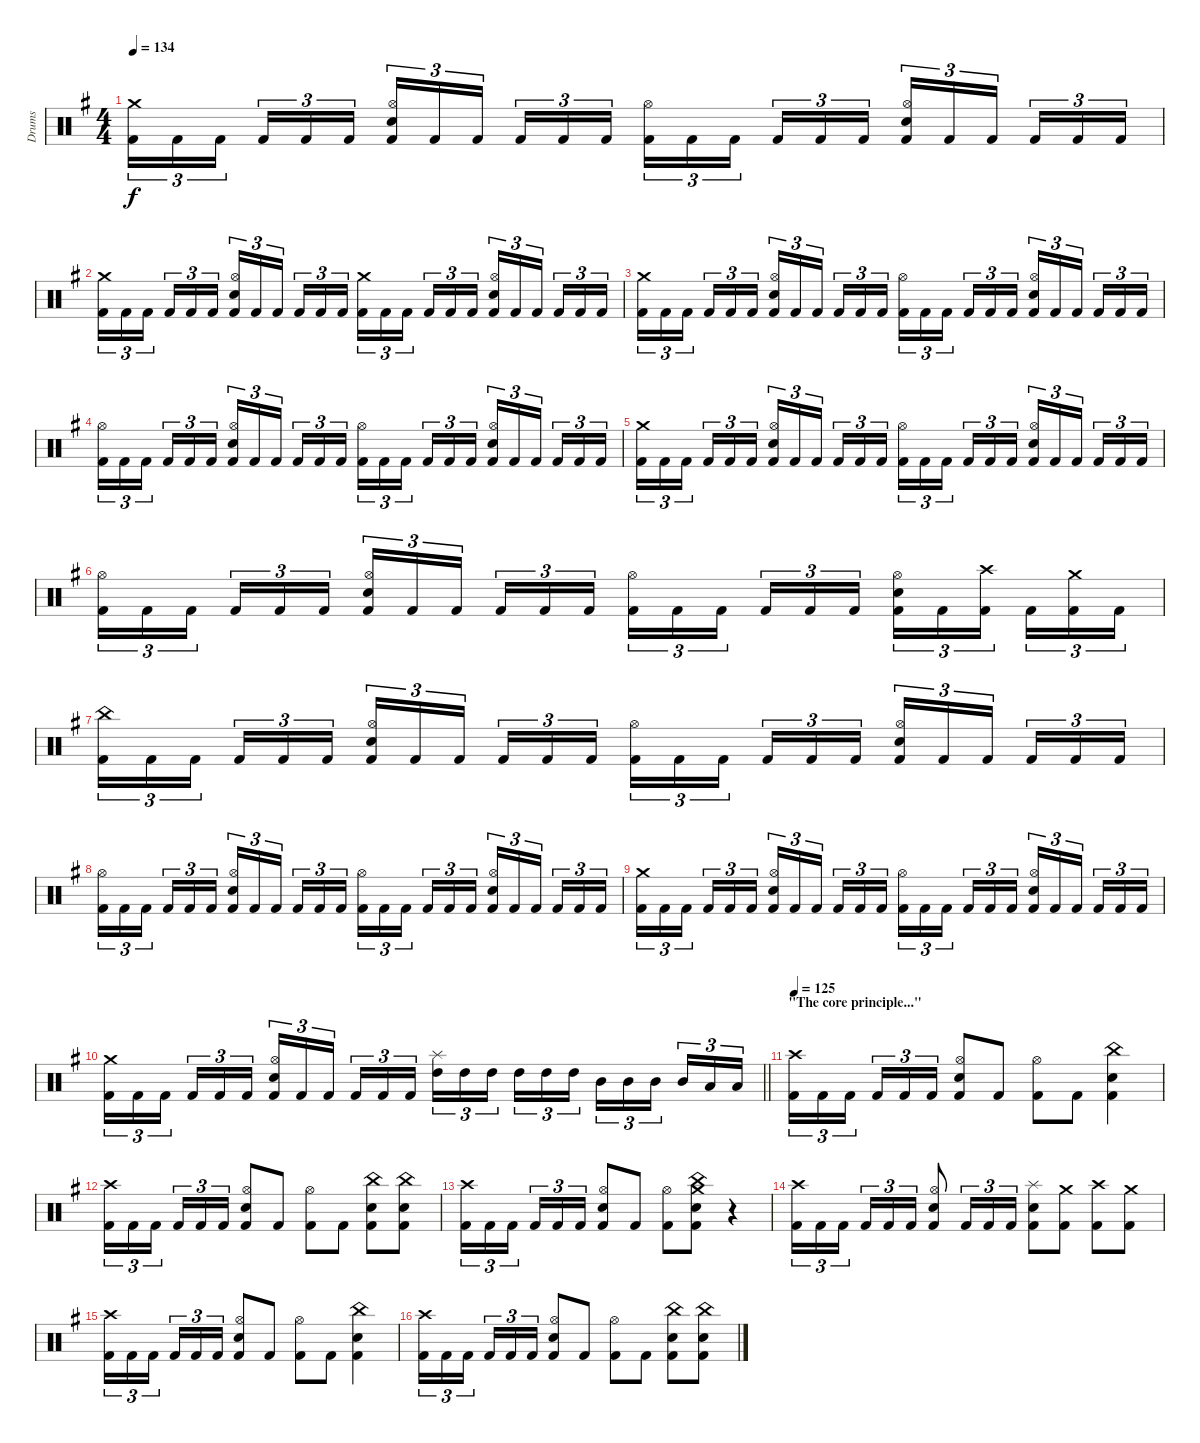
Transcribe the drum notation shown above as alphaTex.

\track ("Drums" "Drums") {instrument percussion}
\staff {score}
\articulation defaults
\ts (4 4)
\tempo 134
\clef neutral
\ks g
("Crash medium (hit)" "Kick (hit) 2").16{tu (3 2) dy f} "Kick (hit) 2".16{tu (3 2)} "Kick (hit) 2".16{tu (3 2) beam splitsecondary} "Kick (hit) 2".16{tu (3 2)} "Kick (hit) 2".16{tu (3 2)} "Kick (hit) 2".16{tu (3 2)} ("Hi-Hat (open)" "Electric Snare (hit)" "Kick (hit) 2").16{tu (3 2)} "Kick (hit) 2".16{tu (3 2)} "Kick (hit) 2".16{tu (3 2) beam splitsecondary} "Kick (hit) 2".16{tu (3 2)} "Kick (hit) 2".16{tu (3 2)} "Kick (hit) 2".16{tu (3 2)} ("Hi-Hat (open)" "Kick (hit) 2").16{tu (3 2)} "Kick (hit) 2".16{tu (3 2)} "Kick (hit) 2".16{tu (3 2) beam splitsecondary} "Kick (hit) 2".16{tu (3 2)} "Kick (hit) 2".16{tu (3 2)} "Kick (hit) 2".16{tu (3 2)} ("Hi-Hat (open)" "Electric Snare (hit)" "Kick (hit) 2").16{tu (3 2)} "Kick (hit) 2".16{tu (3 2)} "Kick (hit) 2".16{tu (3 2) beam splitsecondary} "Kick (hit) 2".16{tu (3 2)} "Kick (hit) 2".16{tu (3 2)} "Kick (hit) 2".16{tu (3 2)} |
("Crash medium (hit)" "Kick (hit) 2").16{tu (3 2)} "Kick (hit) 2".16{tu (3 2)} "Kick (hit) 2".16{tu (3 2) beam splitsecondary} "Kick (hit) 2".16{tu (3 2)} "Kick (hit) 2".16{tu (3 2)} "Kick (hit) 2".16{tu (3 2)} ("Hi-Hat (open)" "Electric Snare (hit)" "Kick (hit) 2").16{tu (3 2)} "Kick (hit) 2".16{tu (3 2)} "Kick (hit) 2".16{tu (3 2) beam splitsecondary} "Kick (hit) 2".16{tu (3 2)} "Kick (hit) 2".16{tu (3 2)} "Kick (hit) 2".16{tu (3 2)} ("Crash medium (hit)" "Kick (hit) 2").16{tu (3 2)} "Kick (hit) 2".16{tu (3 2)} "Kick (hit) 2".16{tu (3 2) beam splitsecondary} "Kick (hit) 2".16{tu (3 2)} "Kick (hit) 2".16{tu (3 2)} "Kick (hit) 2".16{tu (3 2)} ("Hi-Hat (open)" "Electric Snare (hit)" "Kick (hit) 2").16{tu (3 2)} "Kick (hit) 2".16{tu (3 2)} "Kick (hit) 2".16{tu (3 2) beam splitsecondary} "Kick (hit) 2".16{tu (3 2)} "Kick (hit) 2".16{tu (3 2)} "Kick (hit) 2".16{tu (3 2)} |
("Crash medium (hit)" "Kick (hit) 2").16{tu (3 2)} "Kick (hit) 2".16{tu (3 2)} "Kick (hit) 2".16{tu (3 2) beam splitsecondary} "Kick (hit) 2".16{tu (3 2)} "Kick (hit) 2".16{tu (3 2)} "Kick (hit) 2".16{tu (3 2)} ("Hi-Hat (open)" "Electric Snare (hit)" "Kick (hit) 2").16{tu (3 2)} "Kick (hit) 2".16{tu (3 2)} "Kick (hit) 2".16{tu (3 2) beam splitsecondary} "Kick (hit) 2".16{tu (3 2)} "Kick (hit) 2".16{tu (3 2)} "Kick (hit) 2".16{tu (3 2)} ("Hi-Hat (open)" "Kick (hit) 2").16{tu (3 2)} "Kick (hit) 2".16{tu (3 2)} "Kick (hit) 2".16{tu (3 2) beam splitsecondary} "Kick (hit) 2".16{tu (3 2)} "Kick (hit) 2".16{tu (3 2)} "Kick (hit) 2".16{tu (3 2)} ("Hi-Hat (open)" "Electric Snare (hit)" "Kick (hit) 2").16{tu (3 2)} "Kick (hit) 2".16{tu (3 2)} "Kick (hit) 2".16{tu (3 2) beam splitsecondary} "Kick (hit) 2".16{tu (3 2)} "Kick (hit) 2".16{tu (3 2)} "Kick (hit) 2".16{tu (3 2)} |
("Hi-Hat (open)" "Kick (hit) 2").16{tu (3 2)} "Kick (hit) 2".16{tu (3 2)} "Kick (hit) 2".16{tu (3 2) beam splitsecondary} "Kick (hit) 2".16{tu (3 2)} "Kick (hit) 2".16{tu (3 2)} "Kick (hit) 2".16{tu (3 2)} ("Hi-Hat (open)" "Electric Snare (hit)" "Kick (hit) 2").16{tu (3 2)} "Kick (hit) 2".16{tu (3 2)} "Kick (hit) 2".16{tu (3 2) beam splitsecondary} "Kick (hit) 2".16{tu (3 2)} "Kick (hit) 2".16{tu (3 2)} "Kick (hit) 2".16{tu (3 2)} ("Hi-Hat (open)" "Kick (hit) 2").16{tu (3 2)} "Kick (hit) 2".16{tu (3 2)} "Kick (hit) 2".16{tu (3 2) beam splitsecondary} "Kick (hit) 2".16{tu (3 2)} "Kick (hit) 2".16{tu (3 2)} "Kick (hit) 2".16{tu (3 2)} ("Hi-Hat (open)" "Electric Snare (hit)" "Kick (hit) 2").16{tu (3 2)} "Kick (hit) 2".16{tu (3 2)} "Kick (hit) 2".16{tu (3 2) beam splitsecondary} "Kick (hit) 2".16{tu (3 2)} "Kick (hit) 2".16{tu (3 2)} "Kick (hit) 2".16{tu (3 2)} |
("Crash medium (hit)" "Kick (hit) 2").16{tu (3 2)} "Kick (hit) 2".16{tu (3 2)} "Kick (hit) 2".16{tu (3 2) beam splitsecondary} "Kick (hit) 2".16{tu (3 2)} "Kick (hit) 2".16{tu (3 2)} "Kick (hit) 2".16{tu (3 2)} ("Hi-Hat (open)" "Electric Snare (hit)" "Kick (hit) 2").16{tu (3 2)} "Kick (hit) 2".16{tu (3 2)} "Kick (hit) 2".16{tu (3 2) beam splitsecondary} "Kick (hit) 2".16{tu (3 2)} "Kick (hit) 2".16{tu (3 2)} "Kick (hit) 2".16{tu (3 2)} ("Hi-Hat (open)" "Kick (hit) 2").16{tu (3 2)} "Kick (hit) 2".16{tu (3 2)} "Kick (hit) 2".16{tu (3 2) beam splitsecondary} "Kick (hit) 2".16{tu (3 2)} "Kick (hit) 2".16{tu (3 2)} "Kick (hit) 2".16{tu (3 2)} ("Hi-Hat (open)" "Electric Snare (hit)" "Kick (hit) 2").16{tu (3 2)} "Kick (hit) 2".16{tu (3 2)} "Kick (hit) 2".16{tu (3 2) beam splitsecondary} "Kick (hit) 2".16{tu (3 2)} "Kick (hit) 2".16{tu (3 2)} "Kick (hit) 2".16{tu (3 2)} |
("Hi-Hat (open)" "Kick (hit) 2").16{tu (3 2)} "Kick (hit) 2".16{tu (3 2)} "Kick (hit) 2".16{tu (3 2) beam splitsecondary} "Kick (hit) 2".16{tu (3 2)} "Kick (hit) 2".16{tu (3 2)} "Kick (hit) 2".16{tu (3 2)} ("Hi-Hat (open)" "Electric Snare (hit)" "Kick (hit) 2").16{tu (3 2)} "Kick (hit) 2".16{tu (3 2)} "Kick (hit) 2".16{tu (3 2) beam splitsecondary} "Kick (hit) 2".16{tu (3 2)} "Kick (hit) 2".16{tu (3 2)} "Kick (hit) 2".16{tu (3 2)} ("Hi-Hat (open)" "Kick (hit) 2").16{tu (3 2)} "Kick (hit) 2".16{tu (3 2)} "Kick (hit) 2".16{tu (3 2) beam splitsecondary} "Kick (hit) 2".16{tu (3 2)} "Kick (hit) 2".16{tu (3 2)} "Kick (hit) 2".16{tu (3 2)} ("Hi-Hat (open)" "Electric Snare (hit)" "Kick (hit) 2").16{tu (3 2)} "Kick (hit) 2".16{tu (3 2)} ("Crash high (hit)" "Kick (hit) 2").16{tu (3 2) beam splitsecondary} "Kick (hit) 2".16{tu (3 2)} ("Crash medium (hit)" "Kick (hit) 2").16{tu (3 2)} "Kick (hit) 2".16{tu (3 2)} |
("China (hit)" "Kick (hit) 2").16{tu (3 2)} "Kick (hit) 2".16{tu (3 2)} "Kick (hit) 2".16{tu (3 2) beam splitsecondary} "Kick (hit) 2".16{tu (3 2)} "Kick (hit) 2".16{tu (3 2)} "Kick (hit) 2".16{tu (3 2)} ("Hi-Hat (open)" "Electric Snare (hit)" "Kick (hit) 2").16{tu (3 2)} "Kick (hit) 2".16{tu (3 2)} "Kick (hit) 2".16{tu (3 2) beam splitsecondary} "Kick (hit) 2".16{tu (3 2)} "Kick (hit) 2".16{tu (3 2)} "Kick (hit) 2".16{tu (3 2)} ("Hi-Hat (open)" "Kick (hit) 2").16{tu (3 2)} "Kick (hit) 2".16{tu (3 2)} "Kick (hit) 2".16{tu (3 2) beam splitsecondary} "Kick (hit) 2".16{tu (3 2)} "Kick (hit) 2".16{tu (3 2)} "Kick (hit) 2".16{tu (3 2)} ("Hi-Hat (open)" "Electric Snare (hit)" "Kick (hit) 2").16{tu (3 2)} "Kick (hit) 2".16{tu (3 2)} "Kick (hit) 2".16{tu (3 2) beam splitsecondary} "Kick (hit) 2".16{tu (3 2)} "Kick (hit) 2".16{tu (3 2)} "Kick (hit) 2".16{tu (3 2)} |
("Hi-Hat (open)" "Kick (hit) 2").16{tu (3 2)} "Kick (hit) 2".16{tu (3 2)} "Kick (hit) 2".16{tu (3 2) beam splitsecondary} "Kick (hit) 2".16{tu (3 2)} "Kick (hit) 2".16{tu (3 2)} "Kick (hit) 2".16{tu (3 2)} ("Hi-Hat (open)" "Electric Snare (hit)" "Kick (hit) 2").16{tu (3 2)} "Kick (hit) 2".16{tu (3 2)} "Kick (hit) 2".16{tu (3 2) beam splitsecondary} "Kick (hit) 2".16{tu (3 2)} "Kick (hit) 2".16{tu (3 2)} "Kick (hit) 2".16{tu (3 2)} ("Hi-Hat (open)" "Kick (hit) 2").16{tu (3 2)} "Kick (hit) 2".16{tu (3 2)} "Kick (hit) 2".16{tu (3 2) beam splitsecondary} "Kick (hit) 2".16{tu (3 2)} "Kick (hit) 2".16{tu (3 2)} "Kick (hit) 2".16{tu (3 2)} ("Hi-Hat (open)" "Electric Snare (hit)" "Kick (hit) 2").16{tu (3 2)} "Kick (hit) 2".16{tu (3 2)} "Kick (hit) 2".16{tu (3 2) beam splitsecondary} "Kick (hit) 2".16{tu (3 2)} "Kick (hit) 2".16{tu (3 2)} "Kick (hit) 2".16{tu (3 2)} |
("Crash medium (hit)" "Kick (hit) 2").16{tu (3 2)} "Kick (hit) 2".16{tu (3 2)} "Kick (hit) 2".16{tu (3 2) beam splitsecondary} "Kick (hit) 2".16{tu (3 2)} "Kick (hit) 2".16{tu (3 2)} "Kick (hit) 2".16{tu (3 2)} ("Hi-Hat (open)" "Electric Snare (hit)" "Kick (hit) 2").16{tu (3 2)} "Kick (hit) 2".16{tu (3 2)} "Kick (hit) 2".16{tu (3 2) beam splitsecondary} "Kick (hit) 2".16{tu (3 2)} "Kick (hit) 2".16{tu (3 2)} "Kick (hit) 2".16{tu (3 2)} ("Hi-Hat (open)" "Kick (hit) 2").16{tu (3 2)} "Kick (hit) 2".16{tu (3 2)} "Kick (hit) 2".16{tu (3 2) beam splitsecondary} "Kick (hit) 2".16{tu (3 2)} "Kick (hit) 2".16{tu (3 2)} "Kick (hit) 2".16{tu (3 2)} ("Hi-Hat (open)" "Electric Snare (hit)" "Kick (hit) 2").16{tu (3 2)} "Kick (hit) 2".16{tu (3 2)} "Kick (hit) 2".16{tu (3 2) beam splitsecondary} "Kick (hit) 2".16{tu (3 2)} "Kick (hit) 2".16{tu (3 2)} "Kick (hit) 2".16{tu (3 2)} |
\barLineRight lightlight
("Crash medium (hit)" "Kick (hit) 2").16{tu (3 2)} "Kick (hit) 2".16{tu (3 2)} "Kick (hit) 2".16{tu (3 2) beam splitsecondary} "Kick (hit) 2".16{tu (3 2)} "Kick (hit) 2".16{tu (3 2)} "Kick (hit) 2".16{tu (3 2)} ("Hi-Hat (open)" "Electric Snare (hit)" "Kick (hit) 2").16{tu (3 2)} "Kick (hit) 2".16{tu (3 2)} "Kick (hit) 2".16{tu (3 2) beam splitsecondary} "Kick (hit) 2".16{tu (3 2)} "Kick (hit) 2".16{tu (3 2)} "Kick (hit) 2".16{tu (3 2)} ("Splash (hit)" "High Tom (hit)").16{tu (3 2)} "High Tom (hit)".16{tu (3 2)} "High Tom (hit)".16{tu (3 2) beam splitsecondary} "High Tom (hit)".16{tu (3 2)} "High Tom (hit)".16{tu (3 2)} "High Tom (hit)".16{tu (3 2)} "Mid Tom (hit)".16{tu (3 2)} "Mid Tom (hit)".16{tu (3 2)} "Mid Tom (hit)".16{tu (3 2) beam splitsecondary} "Mid Tom (hit)".16{tu (3 2)} "Low Tom (hit)".16{tu (3 2)} "Low Tom (hit)".16{tu (3 2)} |
\section ("" "\"The core principle...\"")
\tempo 125
("Crash high (hit)" "Kick (hit) 2").16{tu (3 2)} "Kick (hit) 2".16{tu (3 2)} "Kick (hit) 2".16{tu (3 2) beam splitsecondary} "Kick (hit) 2".16{tu (3 2)} "Kick (hit) 2".16{tu (3 2)} "Kick (hit) 2".16{tu (3 2)} ("Hi-Hat (open)" "Electric Snare (hit)" "Kick (hit) 2").8 "Kick (hit) 2".8 ("Hi-Hat (open)" "Kick (hit) 2").8 "Kick (hit) 2".8 ("China (hit)" "Electric Snare (hit)" "Kick (hit) 2").4 |
("Crash high (hit)" "Kick (hit) 2").16{tu (3 2)} "Kick (hit) 2".16{tu (3 2)} "Kick (hit) 2".16{tu (3 2) beam splitsecondary} "Kick (hit) 2".16{tu (3 2)} "Kick (hit) 2".16{tu (3 2)} "Kick (hit) 2".16{tu (3 2)} ("Hi-Hat (open)" "Electric Snare (hit)" "Kick (hit) 2").8 "Kick (hit) 2".8 ("Hi-Hat (open)" "Kick (hit) 2").8 "Kick (hit) 2".8 ("China (hit)" "Electric Snare (hit)" "Kick (hit) 2").8 ("China (hit)" "Electric Snare (hit)" "Kick (hit) 2").8 |
("Crash high (hit)" "Kick (hit) 2").16{tu (3 2)} "Kick (hit) 2".16{tu (3 2)} "Kick (hit) 2".16{tu (3 2) beam splitsecondary} "Kick (hit) 2".16{tu (3 2)} "Kick (hit) 2".16{tu (3 2)} "Kick (hit) 2".16{tu (3 2)} ("Hi-Hat (open)" "Electric Snare (hit)" "Kick (hit) 2").8 "Kick (hit) 2".8 ("Hi-Hat (open)" "Kick (hit) 2").8 ("China (hit)" "Crash medium (hit)" "Electric Snare (hit)" "Kick (hit) 2").8 r.4 |
("Crash high (hit)" "Kick (hit) 2").16{tu (3 2)} "Kick (hit) 2".16{tu (3 2)} "Kick (hit) 2".16{tu (3 2) beam splitsecondary} "Kick (hit) 2".16{tu (3 2)} "Kick (hit) 2".16{tu (3 2)} "Kick (hit) 2".16{tu (3 2)} ("Hi-Hat (open)" "Electric Snare (hit)" "Kick (hit) 2").8 "Kick (hit) 2".16{tu (3 2)} "Kick (hit) 2".16{tu (3 2)} "Kick (hit) 2".16{tu (3 2)} ("Splash (hit)" "Electric Snare (hit)" "Kick (hit) 2").8 ("Crash medium (hit)" "Kick (hit) 2").8 ("Crash high (hit)" "Kick (hit) 2").8 ("Crash medium (hit)" "Kick (hit) 2").8 |
("Crash high (hit)" "Kick (hit) 2").16{tu (3 2)} "Kick (hit) 2".16{tu (3 2)} "Kick (hit) 2".16{tu (3 2) beam splitsecondary} "Kick (hit) 2".16{tu (3 2)} "Kick (hit) 2".16{tu (3 2)} "Kick (hit) 2".16{tu (3 2)} ("Hi-Hat (open)" "Electric Snare (hit)" "Kick (hit) 2").8 "Kick (hit) 2".8 ("Hi-Hat (open)" "Kick (hit) 2").8 "Kick (hit) 2".8 ("China (hit)" "Electric Snare (hit)" "Kick (hit) 2").4 |
("Crash high (hit)" "Kick (hit) 2").16{tu (3 2)} "Kick (hit) 2".16{tu (3 2)} "Kick (hit) 2".16{tu (3 2) beam splitsecondary} "Kick (hit) 2".16{tu (3 2)} "Kick (hit) 2".16{tu (3 2)} "Kick (hit) 2".16{tu (3 2)} ("Hi-Hat (open)" "Electric Snare (hit)" "Kick (hit) 2").8 "Kick (hit) 2".8 ("Hi-Hat (open)" "Kick (hit) 2").8 "Kick (hit) 2".8 ("China (hit)" "Electric Snare (hit)" "Kick (hit) 2").8 ("China (hit)" "Electric Snare (hit)" "Kick (hit) 2").8
